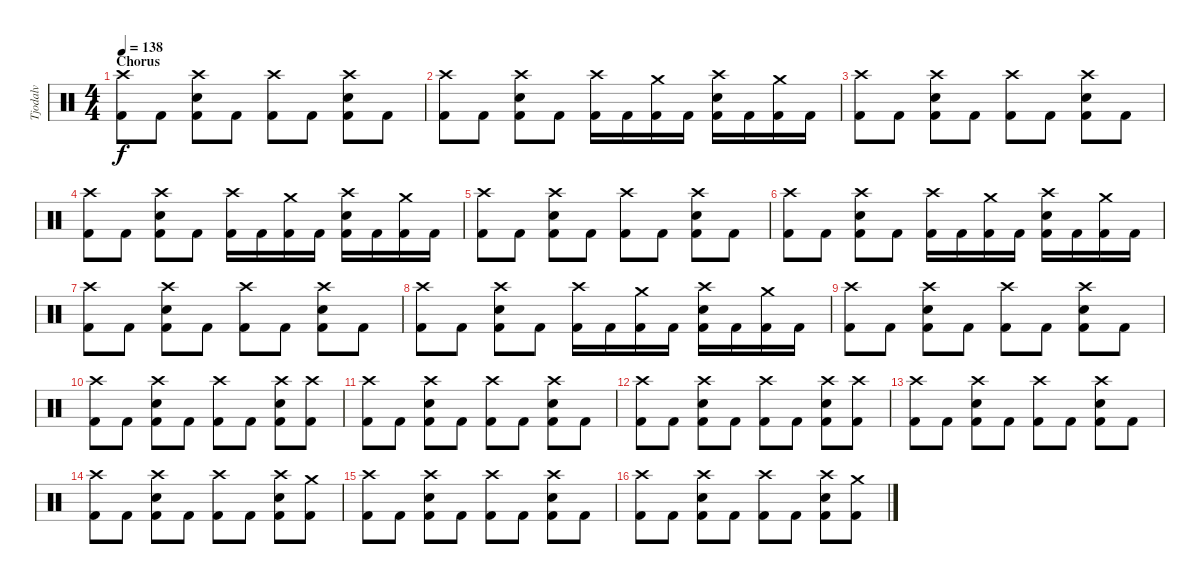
\track ("Tjodalv" "Tjodalv") {instrument percussion}
\staff {score}
\articulation defaults
\ts (4 4)
\section ("" "Chorus")
\tempo 138
\clef neutral
\ks c
("Crash high (hit)" "Kick (hit) 2").8{dy f} "Kick (hit) 2".8 ("Crash high (hit)" "Snare (hit) 2" "Kick (hit) 2").8 "Kick (hit) 2".8 ("Crash high (hit)" "Kick (hit) 2").8 "Kick (hit) 2".8 ("Crash high (hit)" "Snare (hit) 2" "Kick (hit) 2").8 "Kick (hit) 2".8 |
("Crash high (hit)" "Kick (hit) 2").8 "Kick (hit) 2".8 ("Crash high (hit)" "Snare (hit) 2" "Kick (hit) 2").8 "Kick (hit) 2".8 ("Crash high (hit)" "Kick (hit) 2").16 "Kick (hit) 2".16 ("Crash medium (hit)" "Kick (hit) 2").16 "Kick (hit) 2".16 ("Crash high (hit)" "Snare (hit) 2" "Kick (hit) 2").16 "Kick (hit) 2".16 ("Crash medium (hit)" "Kick (hit) 2").16 "Kick (hit) 2".16 |
("Crash high (hit)" "Kick (hit) 2").8 "Kick (hit) 2".8 ("Crash high (hit)" "Snare (hit) 2" "Kick (hit) 2").8 "Kick (hit) 2".8 ("Crash high (hit)" "Kick (hit) 2").8 "Kick (hit) 2".8 ("Crash high (hit)" "Snare (hit) 2" "Kick (hit) 2").8 "Kick (hit) 2".8 |
("Crash high (hit)" "Kick (hit) 2").8 "Kick (hit) 2".8 ("Crash high (hit)" "Snare (hit) 2" "Kick (hit) 2").8 "Kick (hit) 2".8 ("Crash high (hit)" "Kick (hit) 2").16 "Kick (hit) 2".16 ("Crash medium (hit)" "Kick (hit) 2").16 "Kick (hit) 2".16 ("Crash high (hit)" "Snare (hit) 2" "Kick (hit) 2").16 "Kick (hit) 2".16 ("Crash medium (hit)" "Kick (hit) 2").16 "Kick (hit) 2".16 |
("Crash high (hit)" "Kick (hit) 2").8 "Kick (hit) 2".8 ("Crash high (hit)" "Snare (hit) 2" "Kick (hit) 2").8 "Kick (hit) 2".8 ("Crash high (hit)" "Kick (hit) 2").8 "Kick (hit) 2".8 ("Crash high (hit)" "Snare (hit) 2" "Kick (hit) 2").8 "Kick (hit) 2".8 |
("Crash high (hit)" "Kick (hit) 2").8 "Kick (hit) 2".8 ("Crash high (hit)" "Snare (hit) 2" "Kick (hit) 2").8 "Kick (hit) 2".8 ("Crash high (hit)" "Kick (hit) 2").16 "Kick (hit) 2".16 ("Crash medium (hit)" "Kick (hit) 2").16 "Kick (hit) 2".16 ("Crash high (hit)" "Snare (hit) 2" "Kick (hit) 2").16 "Kick (hit) 2".16 ("Crash medium (hit)" "Kick (hit) 2").16 "Kick (hit) 2".16 |
("Crash high (hit)" "Kick (hit) 2").8 "Kick (hit) 2".8 ("Crash high (hit)" "Snare (hit) 2" "Kick (hit) 2").8 "Kick (hit) 2".8 ("Crash high (hit)" "Kick (hit) 2").8 "Kick (hit) 2".8 ("Crash high (hit)" "Snare (hit) 2" "Kick (hit) 2").8 "Kick (hit) 2".8 |
("Crash high (hit)" "Kick (hit) 2").8 "Kick (hit) 2".8 ("Crash high (hit)" "Snare (hit) 2" "Kick (hit) 2").8 "Kick (hit) 2".8 ("Crash high (hit)" "Kick (hit) 2").16 "Kick (hit) 2".16 ("Crash medium (hit)" "Kick (hit) 2").16 "Kick (hit) 2".16 ("Crash high (hit)" "Snare (hit) 2" "Kick (hit) 2").16 "Kick (hit) 2".16 ("Crash medium (hit)" "Kick (hit) 2").16 "Kick (hit) 2".16 |
("Crash high (hit)" "Kick (hit) 2").8 "Kick (hit) 2".8 ("Crash high (hit)" "Snare (hit) 2" "Kick (hit) 2").8 "Kick (hit) 2".8 ("Crash high (hit)" "Kick (hit) 2").8 "Kick (hit) 2".8 ("Crash high (hit)" "Snare (hit) 2" "Kick (hit) 2").8 "Kick (hit) 2".8 |
("Crash high (hit)" "Kick (hit) 2").8 "Kick (hit) 2".8 ("Crash high (hit)" "Snare (hit) 2" "Kick (hit) 2").8 "Kick (hit) 2".8 ("Crash high (hit)" "Kick (hit) 2").8 "Kick (hit) 2".8 ("Crash high (hit)" "Snare (hit) 2" "Kick (hit) 2").8 ("Crash high (hit)" "Kick (hit) 2").8 |
("Crash high (hit)" "Kick (hit) 2").8 "Kick (hit) 2".8 ("Crash high (hit)" "Snare (hit) 2" "Kick (hit) 2").8 "Kick (hit) 2".8 ("Crash high (hit)" "Kick (hit) 2").8 "Kick (hit) 2".8 ("Crash high (hit)" "Snare (hit) 2" "Kick (hit) 2").8 "Kick (hit) 2".8 |
("Crash high (hit)" "Kick (hit) 2").8 "Kick (hit) 2".8 ("Crash high (hit)" "Snare (hit) 2" "Kick (hit) 2").8 "Kick (hit) 2".8 ("Crash high (hit)" "Kick (hit) 2").8 "Kick (hit) 2".8 ("Crash high (hit)" "Snare (hit) 2" "Kick (hit) 2").8 ("Crash high (hit)" "Kick (hit) 2").8 |
("Crash high (hit)" "Kick (hit) 2").8 "Kick (hit) 2".8 ("Crash high (hit)" "Snare (hit) 2" "Kick (hit) 2").8 "Kick (hit) 2".8 ("Crash high (hit)" "Kick (hit) 2").8 "Kick (hit) 2".8 ("Crash high (hit)" "Snare (hit) 2" "Kick (hit) 2").8 "Kick (hit) 2".8 |
("Crash high (hit)" "Kick (hit) 2").8 "Kick (hit) 2".8 ("Crash high (hit)" "Snare (hit) 2" "Kick (hit) 2").8 "Kick (hit) 2".8 ("Crash high (hit)" "Kick (hit) 2").8 "Kick (hit) 2".8 ("Crash high (hit)" "Snare (hit) 2" "Kick (hit) 2").8 ("Crash medium (hit)" "Kick (hit) 2").8 |
("Crash high (hit)" "Kick (hit) 2").8 "Kick (hit) 2".8 ("Crash high (hit)" "Snare (hit) 2" "Kick (hit) 2").8 "Kick (hit) 2".8 ("Crash high (hit)" "Kick (hit) 2").8 "Kick (hit) 2".8 ("Crash high (hit)" "Snare (hit) 2" "Kick (hit) 2").8 "Kick (hit) 2".8 |
("Crash high (hit)" "Kick (hit) 2").8 "Kick (hit) 2".8 ("Crash high (hit)" "Snare (hit) 2" "Kick (hit) 2").8 "Kick (hit) 2".8 ("Crash high (hit)" "Kick (hit) 2").8 "Kick (hit) 2".8 ("Crash high (hit)" "Snare (hit) 2" "Kick (hit) 2").8 ("Crash medium (hit)" "Kick (hit) 2").8
